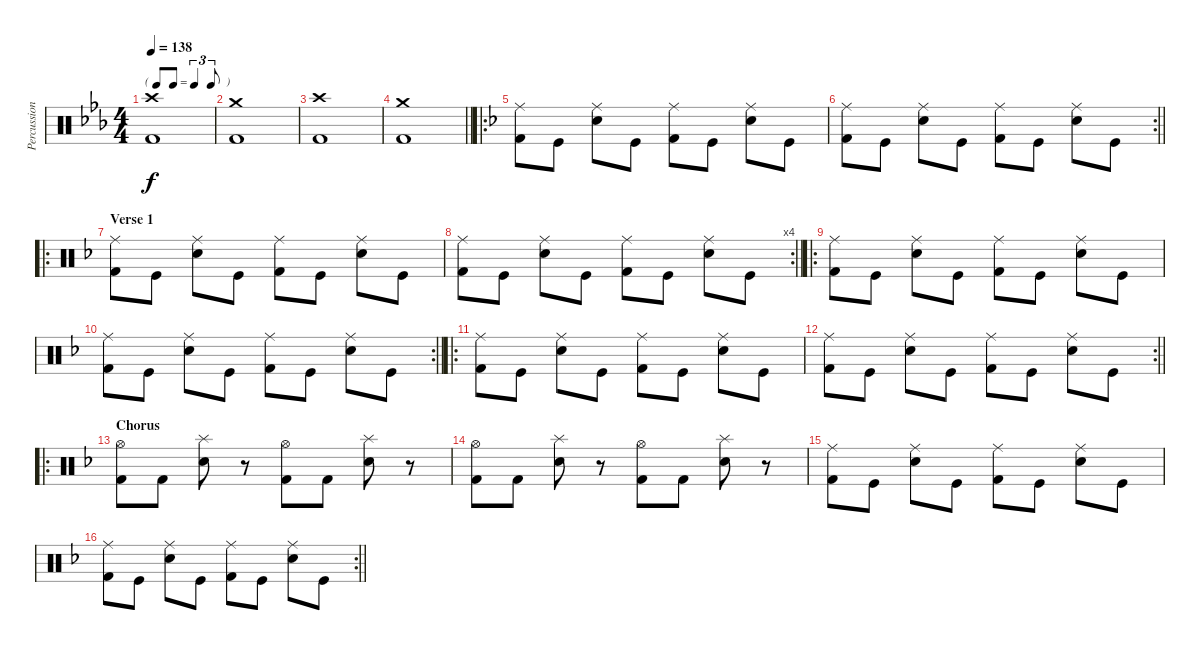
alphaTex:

\track ("Percussion" "Percussion") {instrument percussion}
\staff {score}
\articulation defaults
\ts (4 4)
\tf triplet8th
\tempo 138
\clef neutral
\ks eb
("Crash high (hit)" "Kick (hit) 2").1{dy f} |
("Crash medium (hit)" "Kick (hit) 2").1 |
("Crash high (hit)" "Kick (hit) 2").1 |
\barLineRight lightlight
("Crash medium (hit)" "Kick (hit) 2").1 |
\ro
\ks f
("Ride (middle)" "Kick (hit) 2").8 "Kick (hit)".8 ("Ride (middle)" "Snare (hit) 2").8 "Kick (hit)".8 ("Ride (middle)" "Kick (hit) 2").8 "Kick (hit)".8 ("Ride (middle)" "Snare (hit) 2").8 "Kick (hit)".8 |
\rc 2
\barLineRight lightlight
("Ride (middle)" "Kick (hit) 2").8 "Kick (hit)".8 ("Ride (middle)" "Snare (hit) 2").8 "Kick (hit)".8 ("Ride (middle)" "Kick (hit) 2").8 "Kick (hit)".8 ("Ride (middle)" "Snare (hit) 2").8 "Kick (hit)".8 |
\ro
\section ("" "Verse 1")
("Ride (middle)" "Kick (hit) 2").8 "Kick (hit)".8 ("Ride (middle)" "Snare (hit) 2").8 "Kick (hit)".8 ("Ride (middle)" "Kick (hit) 2").8 "Kick (hit)".8 ("Ride (middle)" "Snare (hit) 2").8 "Kick (hit)".8 |
\rc 4
\barLineRight lightlight
("Ride (middle)" "Kick (hit) 2").8 "Kick (hit)".8 ("Ride (middle)" "Snare (hit) 2").8 "Kick (hit)".8 ("Ride (middle)" "Kick (hit) 2").8 "Kick (hit)".8 ("Ride (middle)" "Snare (hit) 2").8 "Kick (hit)".8 |
\ro
("Ride (middle)" "Kick (hit) 2").8 "Kick (hit)".8 ("Ride (middle)" "Snare (hit) 2").8 "Kick (hit)".8 ("Ride (middle)" "Kick (hit) 2").8 "Kick (hit)".8 ("Ride (middle)" "Snare (hit) 2").8 "Kick (hit)".8 |
\rc 2
\barLineRight lightlight
("Ride (middle)" "Kick (hit) 2").8 "Kick (hit)".8 ("Ride (middle)" "Snare (hit) 2").8 "Kick (hit)".8 ("Ride (middle)" "Kick (hit) 2").8 "Kick (hit)".8 ("Ride (middle)" "Snare (hit) 2").8 "Kick (hit)".8 |
\ro
("Ride (middle)" "Kick (hit) 2").8 "Kick (hit)".8 ("Ride (middle)" "Snare (hit) 2").8 "Kick (hit)".8 ("Ride (middle)" "Kick (hit) 2").8 "Kick (hit)".8 ("Ride (middle)" "Snare (hit) 2").8 "Kick (hit)".8 |
\rc 2
\barLineRight lightlight
("Ride (middle)" "Kick (hit) 2").8 "Kick (hit)".8 ("Ride (middle)" "Snare (hit) 2").8 "Kick (hit)".8 ("Ride (middle)" "Kick (hit) 2").8 "Kick (hit)".8 ("Ride (middle)" "Snare (hit) 2").8 "Kick (hit)".8 |
\ro
\section ("" "Chorus")
("Hi-Hat (open)" "Kick (hit) 2").8 "Kick (hit) 2".8 ("Splash (hit)" "Snare (hit) 2").8 r.8 ("Hi-Hat (open)" "Kick (hit) 2").8 "Kick (hit) 2".8 ("Splash (hit)" "Snare (hit) 2").8 r.8 |
("Hi-Hat (open)" "Kick (hit) 2").8 "Kick (hit) 2".8 ("Splash (hit)" "Snare (hit) 2").8 r.8 ("Hi-Hat (open)" "Kick (hit) 2").8 "Kick (hit) 2".8 ("Splash (hit)" "Snare (hit) 2").8 r.8 |
("Ride (middle)" "Kick (hit) 2").8 "Kick (hit)".8 ("Ride (middle)" "Snare (hit) 2").8 "Kick (hit)".8 ("Ride (middle)" "Kick (hit) 2").8 "Kick (hit)".8 ("Ride (middle)" "Snare (hit) 2").8 "Kick (hit)".8 |
\rc 2
\barLineRight lightlight
("Ride (middle)" "Kick (hit) 2").8 "Kick (hit)".8 ("Ride (middle)" "Snare (hit) 2").8 "Kick (hit)".8 ("Ride (middle)" "Kick (hit) 2").8 "Kick (hit)".8 ("Ride (middle)" "Snare (hit) 2").8 "Kick (hit)".8
